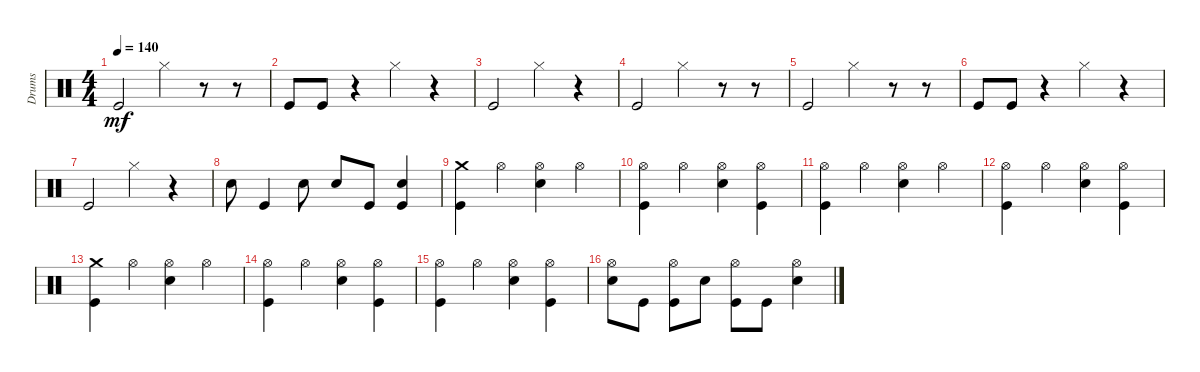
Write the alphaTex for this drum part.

\track ("Drums" "Drums") {instrument percussion}
\staff {score}
\articulation defaults
\ts (4 4)
\tempo 140
\clef neutral
\ks c "Kick (hit)".2{dy mf} "Hi-Hat (closed)".4
r.8 r.8 |
"Kick (hit)".8 "Kick (hit)".8 r.4 "Hi-Hat (closed)".4 r.4 |
"Kick (hit)".2 "Hi-Hat (closed)".4 r.4 |
"Kick (hit)".2 "Hi-Hat (closed)".4 r.8 r.8 |
"Kick (hit)".2 "Hi-Hat (closed)".4 r.8 r.8 |
"Kick (hit)".8 "Kick (hit)".8 r.4 "Hi-Hat (closed)".4 r.4 |
"Kick (hit)".2 "Hi-Hat (closed)".4 r.4 |
"Snare (hit) 2".8 "Kick (hit)".4 "Snare (hit) 2".8 "Snare (hit) 2".8 "Kick (hit)".8 ("Kick (hit)" "Snare (hit) 2").4 |
("Crash medium (hit)" "Kick (hit)").4 "Hi-Hat (open)".4 ("Hi-Hat (open)" "Snare (hit) 2").4 "Hi-Hat (open)".4 |
("Kick (hit)" "Hi-Hat (open)").4 "Hi-Hat (open)".4 ("Hi-Hat (open)" "Snare (hit) 2").4 ("Hi-Hat (open)" "Kick (hit)").4 |
("Hi-Hat (open)" "Kick (hit)").4 "Hi-Hat (open)".4 ("Hi-Hat (open)" "Snare (hit) 2").4 "Hi-Hat (open)".4 |
("Hi-Hat (open)" "Kick (hit)").4 "Hi-Hat (open)".4 ("Hi-Hat (open)" "Snare (hit) 2").4 ("Hi-Hat (open)" "Kick (hit)").4 |
("Crash medium (hit)" "Kick (hit)").4 "Hi-Hat (open)".4 ("Hi-Hat (open)" "Snare (hit) 2").4 "Hi-Hat (open)".4 |
("Kick (hit)" "Hi-Hat (open)").4 "Hi-Hat (open)".4 ("Hi-Hat (open)" "Snare (hit) 2").4 ("Hi-Hat (open)" "Kick (hit)").4 |
("Hi-Hat (open)" "Kick (hit)").4 "Hi-Hat (open)".4 ("Hi-Hat (open)" "Snare (hit) 2").4 ("Hi-Hat (open)" "Kick (hit)").4 |
("Snare (hit) 2" "Hi-Hat (open)").8 "Kick (hit)".8 ("Kick (hit)" "Hi-Hat (open)").8 "Snare (hit) 2".8 ("Kick (hit)" "Hi-Hat (open)").8 "Kick (hit)".8 ("Snare (hit) 2" "Hi-Hat (open)").4
